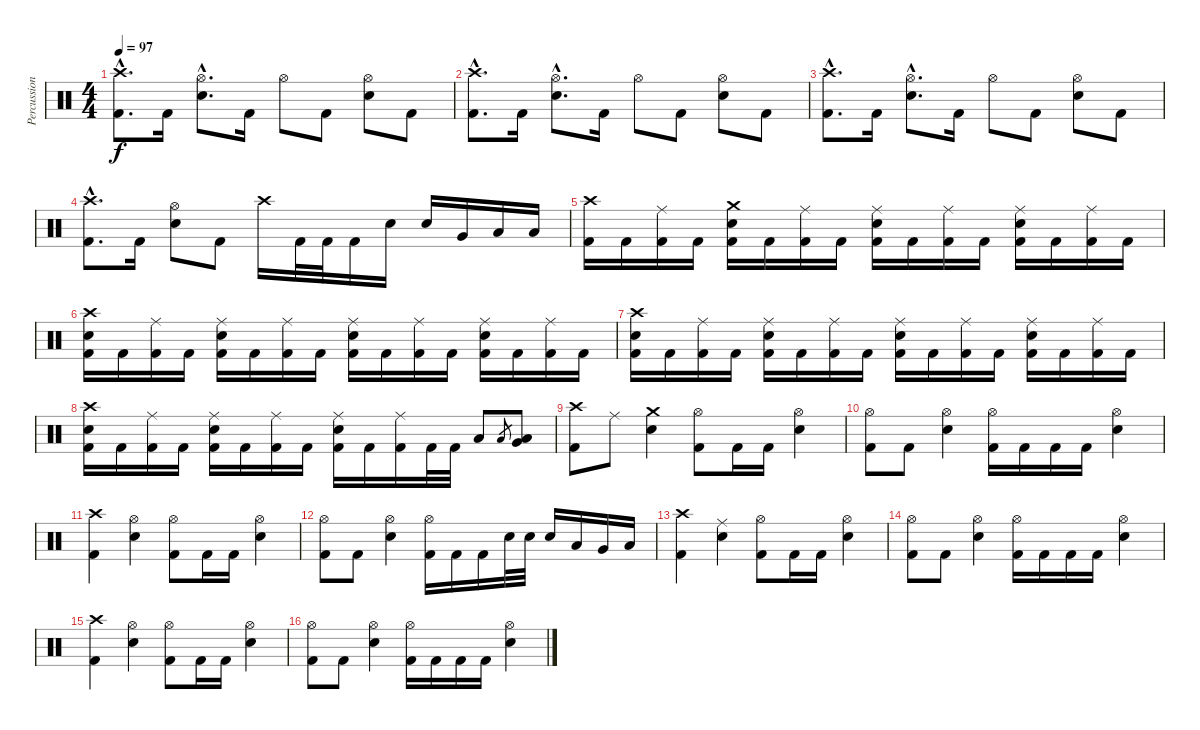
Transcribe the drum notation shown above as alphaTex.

\track ("Percussion" "Percussion") {instrument percussion}
\staff {score}
\articulation defaults
\ts (4 4)
\tempo 97
\clef neutral
\ks c
("Crash high (hit)"{hac} "Kick (hit) 2"{hac}).8{d dy f} "Kick (hit) 2".16 ("Hi-Hat (open)"{hac} "Snare (hit) 2"{hac}).8{d} "Kick (hit) 2".16 "Hi-Hat (open)".8 "Kick (hit) 2".8 ("Hi-Hat (open)" "Snare (hit) 2").8 "Kick (hit) 2".8 |
("Crash high (hit)"{hac} "Kick (hit) 2"{hac}).8{d} "Kick (hit) 2".16 ("Hi-Hat (open)"{hac} "Snare (hit) 2"{hac}).8{d} "Kick (hit) 2".16 "Hi-Hat (open)".8 "Kick (hit) 2".8 ("Hi-Hat (open)" "Snare (hit) 2").8 "Kick (hit) 2".8 |
("Crash high (hit)"{hac} "Kick (hit) 2"{hac}).8{d} "Kick (hit) 2".16 ("Hi-Hat (open)"{hac} "Snare (hit) 2"{hac}).8{d} "Kick (hit) 2".16 "Hi-Hat (open)".8 "Kick (hit) 2".8 ("Hi-Hat (open)" "Snare (hit) 2").8 "Kick (hit) 2".8 |
("Crash high (hit)"{hac} "Kick (hit) 2"{hac}).8{d} "Kick (hit) 2".16 ("Hi-Hat (open)" "Snare (hit) 2").8 "Kick (hit) 2".8 "Crash high (hit)".16 "Kick (hit) 2".32 "Kick (hit) 2".32 "Kick (hit) 2".16 "Snare (hit) 2".16 "Snare (hit) 2".16 "Very Low Tom (hit)".16 "Low Floor Tom (hit)".16 "Low Floor Tom (hit)".16 |
("Crash high (hit)" "Kick (hit) 2").16 "Kick (hit) 2".16 ("Ride (middle)" "Kick (hit) 2").16 "Kick (hit) 2".16 ("Snare (hit) 2" "Crash medium (hit)" "Kick (hit) 2").16 "Kick (hit) 2".16 ("Ride (middle)" "Kick (hit) 2").16 "Kick (hit) 2".16 ("Snare (hit) 2" "Ride (middle)" "Kick (hit) 2").16 "Kick (hit) 2".16 ("Ride (middle)" "Kick (hit) 2").16 "Kick (hit) 2".16 ("Ride (middle)" "Snare (hit) 2" "Kick (hit) 2").16 "Kick (hit) 2".16 ("Ride (middle)" "Kick (hit) 2").16 "Kick (hit) 2".16 |
("Snare (hit) 2" "Crash high (hit)" "Kick (hit) 2").16 "Kick (hit) 2".16 ("Ride (middle)" "Kick (hit) 2").16 "Kick (hit) 2".16 ("Snare (hit) 2" "Ride (middle)" "Kick (hit) 2").16 "Kick (hit) 2".16 ("Ride (middle)" "Kick (hit) 2").16 "Kick (hit) 2".16 ("Snare (hit) 2" "Ride (middle)" "Kick (hit) 2").16 "Kick (hit) 2".16 ("Ride (middle)" "Kick (hit) 2").16 "Kick (hit) 2".16 ("Ride (middle)" "Snare (hit) 2" "Kick (hit) 2").16 "Kick (hit) 2".16 ("Ride (middle)" "Kick (hit) 2").16 "Kick (hit) 2".16 |
("Snare (hit) 2" "Crash high (hit)" "Kick (hit) 2").16 "Kick (hit) 2".16 ("Ride (middle)" "Kick (hit) 2").16 "Kick (hit) 2".16 ("Snare (hit) 2" "Ride (middle)" "Kick (hit) 2").16 "Kick (hit) 2".16 ("Ride (middle)" "Kick (hit) 2").16 "Kick (hit) 2".16 ("Snare (hit) 2" "Ride (middle)" "Kick (hit) 2").16 "Kick (hit) 2".16 ("Ride (middle)" "Kick (hit) 2").16 "Kick (hit) 2".16 ("Ride (middle)" "Snare (hit) 2" "Kick (hit) 2").16 "Kick (hit) 2".16 ("Ride (middle)" "Kick (hit) 2").16 "Kick (hit) 2".16 |
("Snare (hit) 2" "Crash high (hit)" "Kick (hit) 2").16 "Kick (hit) 2".16 ("Ride (middle)" "Kick (hit) 2").16 "Kick (hit) 2".16 ("Snare (hit) 2" "Ride (middle)" "Kick (hit) 2").16 "Kick (hit) 2".16 ("Ride (middle)" "Kick (hit) 2").16 "Kick (hit) 2".16 ("Snare (hit) 2" "Ride (middle)" "Kick (hit) 2").16 "Kick (hit) 2".16 ("Ride (middle)" "Kick (hit) 2").16 "Kick (hit) 2".32 "Kick (hit) 2".32 "Low Tom (hit)".8 "Low Floor Tom (hit)".8{gr} ("Low Floor Tom (hit)" "Very Low Tom (hit)").8 |
("Crash high (hit)" "Kick (hit) 2").8 "Ride (middle)".8 ("Crash medium (hit)" "Snare (hit) 2").4 ("Hi-Hat (open)" "Kick (hit) 2").8 "Kick (hit) 2".16 "Kick (hit) 2".16 ("Hi-Hat (open)" "Snare (hit) 2").4 |
("Hi-Hat (open)" "Kick (hit) 2").8 "Kick (hit) 2".8 ("Hi-Hat (open)" "Snare (hit) 2").4 ("Hi-Hat (open)" "Kick (hit) 2").16 "Kick (hit) 2".16 "Kick (hit) 2".16 "Kick (hit) 2".16 ("Hi-Hat (open)" "Snare (hit) 2").4 |
("Crash high (hit)" "Kick (hit) 2").4 ("Hi-Hat (open)" "Snare (hit) 2").4 ("Hi-Hat (open)" "Kick (hit) 2").8 "Kick (hit) 2".16 "Kick (hit) 2".16 ("Hi-Hat (open)" "Snare (hit) 2").4 |
("Hi-Hat (open)" "Kick (hit) 2").8 "Kick (hit) 2".8 ("Hi-Hat (open)" "Snare (hit) 2").4 ("Hi-Hat (open)" "Kick (hit) 2").16 "Kick (hit) 2".16 "Kick (hit) 2".16 "Snare (hit) 2".32 "Snare (hit) 2".32 "Snare (hit) 2".16 "Low Tom (hit)".16 "Very Low Tom (hit)".16 "Low Floor Tom (hit)".16 |
("Crash high (hit)" "Kick (hit) 2").4 ("Ride (middle)" "Snare (hit) 2").4 ("Hi-Hat (open)" "Kick (hit) 2").8 "Kick (hit) 2".16 "Kick (hit) 2".16 ("Hi-Hat (open)" "Snare (hit) 2").4 |
("Hi-Hat (open)" "Kick (hit) 2").8 "Kick (hit) 2".8 ("Hi-Hat (open)" "Snare (hit) 2").4 ("Hi-Hat (open)" "Kick (hit) 2").16 "Kick (hit) 2".16 "Kick (hit) 2".16 "Kick (hit) 2".16 ("Hi-Hat (open)" "Snare (hit) 2").4 |
("Crash high (hit)" "Kick (hit) 2").4 ("Hi-Hat (open)" "Snare (hit) 2").4 ("Hi-Hat (open)" "Kick (hit) 2").8 "Kick (hit) 2".16 "Kick (hit) 2".16 ("Hi-Hat (open)" "Snare (hit) 2").4 |
("Hi-Hat (open)" "Kick (hit) 2").8 "Kick (hit) 2".8 ("Hi-Hat (open)" "Snare (hit) 2").4 ("Hi-Hat (open)" "Kick (hit) 2").16 "Kick (hit) 2".16 "Kick (hit) 2".16 "Kick (hit) 2".16 ("Hi-Hat (open)" "Snare (hit) 2").4
